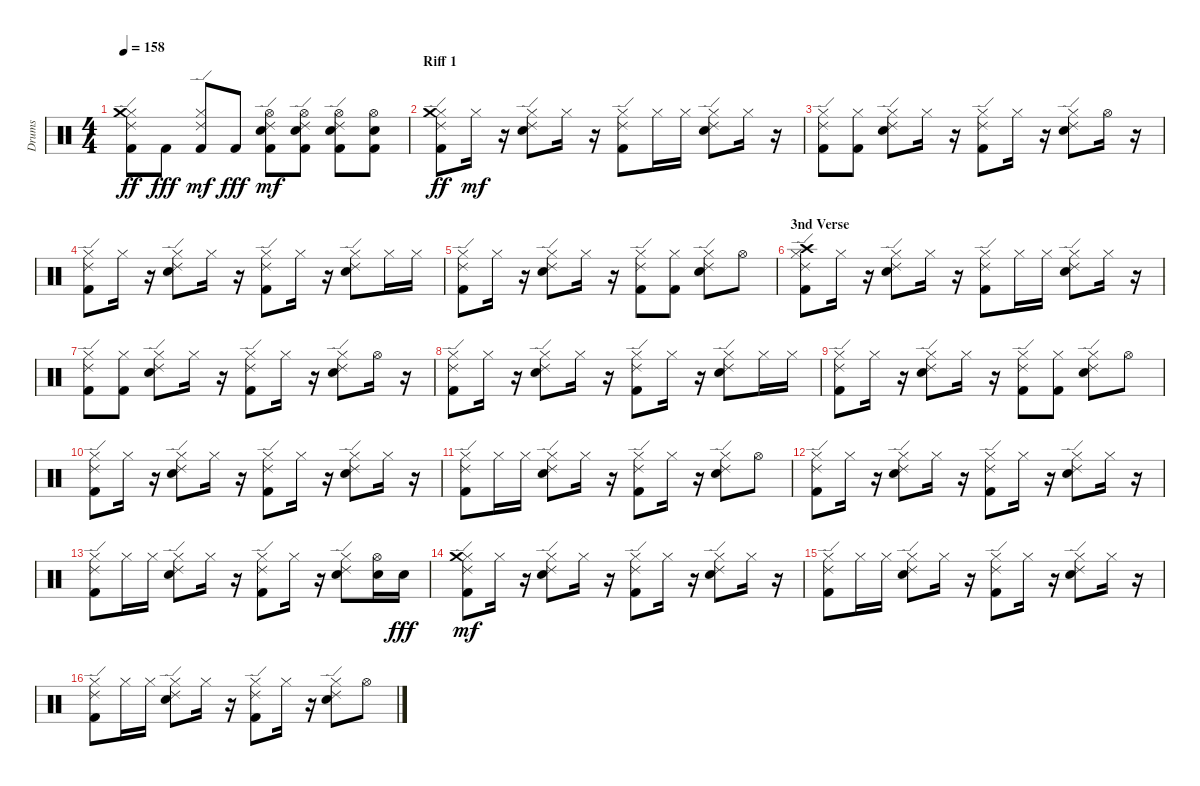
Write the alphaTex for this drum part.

\track ("Drums" "Drums") {instrument percussion}
\staff {score}
\articulation defaults
\ts (4 4)
\tempo 158
\clef neutral
\ks c
("Kick (hit) 2" "Hi-Hat (closed)" "Ride (edge) 2" "Crash medium (hit)").8{dy ff} "Kick (hit) 2".8{dy fff} ("Kick (hit) 2" "Hi-Hat (closed)" "Ride (edge) 2").8{dy mf} "Kick (hit) 2".8{dy fff} ("Kick (hit) 2" "Snare (hit) 2" "Hi-Hat (open)" "Ride (edge) 2").8{dy mf} ("Kick (hit) 2" "Snare (hit) 2" "Hi-Hat (open)" "Ride (edge) 2").8 ("Kick (hit) 2" "Snare (hit) 2" "Hi-Hat (open)" "Ride (edge) 2").8 ("Kick (hit) 2" "Snare (hit) 2" "Hi-Hat (open)").8 |
\section ("" "Riff 1")
("Kick (hit) 2" "Hi-Hat (closed)" "Ride (edge) 2" "Crash medium (hit)").8{dy ff} "Hi-Hat (closed)".16{dy mf} r.16 ("Snare (hit) 2" "Hi-Hat (closed)" "Ride (edge) 2").8 "Hi-Hat (closed)".16 r.16 ("Kick (hit) 2" "Hi-Hat (closed)" "Ride (edge) 2").8 "Hi-Hat (closed)".16 "Hi-Hat (closed)".16 ("Snare (hit) 2" "Hi-Hat (closed)" "Ride (edge) 2").8 "Hi-Hat (closed)".16 r.16 |
("Kick (hit) 2" "Hi-Hat (closed)" "Ride (edge) 2").8 ("Kick (hit) 2" "Hi-Hat (closed)").8 ("Snare (hit) 2" "Hi-Hat (closed)" "Ride (edge) 2").8 "Hi-Hat (closed)".16 r.16 ("Kick (hit) 2" "Hi-Hat (closed)" "Ride (edge) 2").8 "Hi-Hat (closed)".16 r.16 ("Snare (hit) 2" "Hi-Hat (closed)" "Ride (edge) 2").8 "Hi-Hat (open)".16 r.16 |
("Kick (hit) 2" "Hi-Hat (closed)" "Ride (edge) 2").8 "Hi-Hat (closed)".16 r.16 ("Snare (hit) 2" "Hi-Hat (closed)" "Ride (edge) 2").8 "Hi-Hat (closed)".16 r.16 ("Kick (hit) 2" "Hi-Hat (closed)" "Ride (edge) 2").8 "Hi-Hat (closed)".16 r.16 ("Snare (hit) 2" "Hi-Hat (closed)" "Ride (edge) 2").8 "Hi-Hat (closed)".16 "Hi-Hat (closed)".16 |
("Kick (hit) 2" "Hi-Hat (closed)" "Ride (edge) 2").8 "Hi-Hat (closed)".16 r.16 ("Snare (hit) 2" "Hi-Hat (closed)" "Ride (edge) 2").8 "Hi-Hat (closed)".16 r.16 ("Kick (hit) 2" "Hi-Hat (closed)" "Ride (edge) 2").8 ("Kick (hit) 2" "Hi-Hat (closed)").8 ("Snare (hit) 2" "Hi-Hat (closed)" "Ride (edge) 2").8 "Hi-Hat (open)".8 |
\section ("" "3nd Verse")
("Kick (hit) 2" "Hi-Hat (closed)" "Ride (edge) 2" "Crash high (hit)").8 "Hi-Hat (closed)".16 r.16 ("Snare (hit) 2" "Hi-Hat (closed)" "Ride (edge) 2").8 "Hi-Hat (closed)".16 r.16 ("Kick (hit) 2" "Hi-Hat (closed)" "Ride (edge) 2").8 "Hi-Hat (closed)".16 "Hi-Hat (closed)".16 ("Snare (hit) 2" "Hi-Hat (closed)" "Ride (edge) 2").8 "Hi-Hat (closed)".16 r.16 |
("Kick (hit) 2" "Hi-Hat (closed)" "Ride (edge) 2").8 ("Kick (hit) 2" "Hi-Hat (closed)").8 ("Snare (hit) 2" "Hi-Hat (closed)" "Ride (edge) 2").8 "Hi-Hat (closed)".16 r.16 ("Kick (hit) 2" "Hi-Hat (closed)" "Ride (edge) 2").8 "Hi-Hat (closed)".16 r.16 ("Snare (hit) 2" "Hi-Hat (closed)" "Ride (edge) 2").8 "Hi-Hat (open)".16 r.16 |
("Kick (hit) 2" "Hi-Hat (closed)" "Ride (edge) 2").8 "Hi-Hat (closed)".16 r.16 ("Snare (hit) 2" "Hi-Hat (closed)" "Ride (edge) 2").8 "Hi-Hat (closed)".16 r.16 ("Kick (hit) 2" "Hi-Hat (closed)" "Ride (edge) 2").8 "Hi-Hat (closed)".16 r.16 ("Snare (hit) 2" "Hi-Hat (closed)" "Ride (edge) 2").8 "Hi-Hat (closed)".16 "Hi-Hat (closed)".16 |
("Kick (hit) 2" "Hi-Hat (closed)" "Ride (edge) 2").8 "Hi-Hat (closed)".16 r.16 ("Snare (hit) 2" "Hi-Hat (closed)" "Ride (edge) 2").8 "Hi-Hat (closed)".16 r.16 ("Kick (hit) 2" "Hi-Hat (closed)" "Ride (edge) 2").8 ("Kick (hit) 2" "Hi-Hat (closed)").8 ("Snare (hit) 2" "Hi-Hat (closed)" "Ride (edge) 2").8 "Hi-Hat (open)".8 |
("Kick (hit) 2" "Hi-Hat (closed)" "Ride (edge) 2").8 "Hi-Hat (closed)".16 r.16 ("Snare (hit) 2" "Hi-Hat (closed)" "Ride (edge) 2").8 "Hi-Hat (closed)".16 r.16 ("Kick (hit) 2" "Hi-Hat (closed)" "Ride (edge) 2").8 "Hi-Hat (closed)".16 r.16 ("Snare (hit) 2" "Hi-Hat (closed)" "Ride (edge) 2").8 "Hi-Hat (closed)".16 r.16 |
("Kick (hit) 2" "Hi-Hat (closed)" "Ride (edge) 2").8 "Hi-Hat (closed)".16 "Hi-Hat (closed)".16 ("Snare (hit) 2" "Hi-Hat (closed)" "Ride (edge) 2").8 "Hi-Hat (closed)".16 r.16 ("Kick (hit) 2" "Hi-Hat (closed)" "Ride (edge) 2").8 "Hi-Hat (closed)".16 r.16 ("Snare (hit) 2" "Hi-Hat (closed)" "Ride (edge) 2").8 "Hi-Hat (open)".8 |
("Kick (hit) 2" "Hi-Hat (closed)" "Ride (edge) 2").8 "Hi-Hat (closed)".16 r.16 ("Snare (hit) 2" "Hi-Hat (closed)" "Ride (edge) 2").8 "Hi-Hat (closed)".16 r.16 ("Kick (hit) 2" "Hi-Hat (closed)" "Ride (edge) 2").8 "Hi-Hat (closed)".16 r.16 ("Snare (hit) 2" "Hi-Hat (closed)" "Ride (edge) 2").8 "Hi-Hat (closed)".16 r.16 |
("Kick (hit) 2" "Hi-Hat (closed)" "Ride (edge) 2").8 "Hi-Hat (closed)".16 "Hi-Hat (closed)".16 ("Snare (hit) 2" "Hi-Hat (closed)" "Ride (edge) 2").8 "Hi-Hat (closed)".16 r.16 ("Kick (hit) 2" "Hi-Hat (closed)" "Ride (edge) 2").8 "Hi-Hat (closed)".16 r.16 ("Snare (hit) 2" "Hi-Hat (closed)" "Ride (edge) 2").8 ("Snare (hit) 2" "Hi-Hat (open)").16 "Snare (hit) 2".16{dy fff} |
("Kick (hit) 2" "Hi-Hat (closed)" "Ride (edge) 2" "Crash medium (hit)").8{dy mf} "Hi-Hat (closed)".16 r.16 ("Snare (hit) 2" "Hi-Hat (closed)" "Ride (edge) 2").8 "Hi-Hat (closed)".16 r.16 ("Kick (hit) 2" "Hi-Hat (closed)" "Ride (edge) 2").8 "Hi-Hat (closed)".16 r.16 ("Snare (hit) 2" "Hi-Hat (closed)" "Ride (edge) 2").8 "Hi-Hat (closed)".16 r.16 |
("Kick (hit) 2" "Hi-Hat (closed)" "Ride (edge) 2").8 "Hi-Hat (closed)".16 "Hi-Hat (closed)".16 ("Snare (hit) 2" "Hi-Hat (closed)" "Ride (edge) 2").8 "Hi-Hat (closed)".16 r.16 ("Kick (hit) 2" "Hi-Hat (closed)" "Ride (edge) 2").8 "Hi-Hat (closed)".16 r.16 ("Snare (hit) 2" "Hi-Hat (closed)" "Ride (edge) 2").8 "Hi-Hat (closed)".16 r.16 |
("Kick (hit) 2" "Hi-Hat (closed)" "Ride (edge) 2").8 "Hi-Hat (closed)".16 "Hi-Hat (closed)".16 ("Snare (hit) 2" "Hi-Hat (closed)" "Ride (edge) 2").8 "Hi-Hat (closed)".16 r.16 ("Kick (hit) 2" "Hi-Hat (closed)" "Ride (edge) 2").8 "Hi-Hat (closed)".16 r.16 ("Snare (hit) 2" "Hi-Hat (closed)" "Ride (edge) 2").8 "Hi-Hat (open)".8
